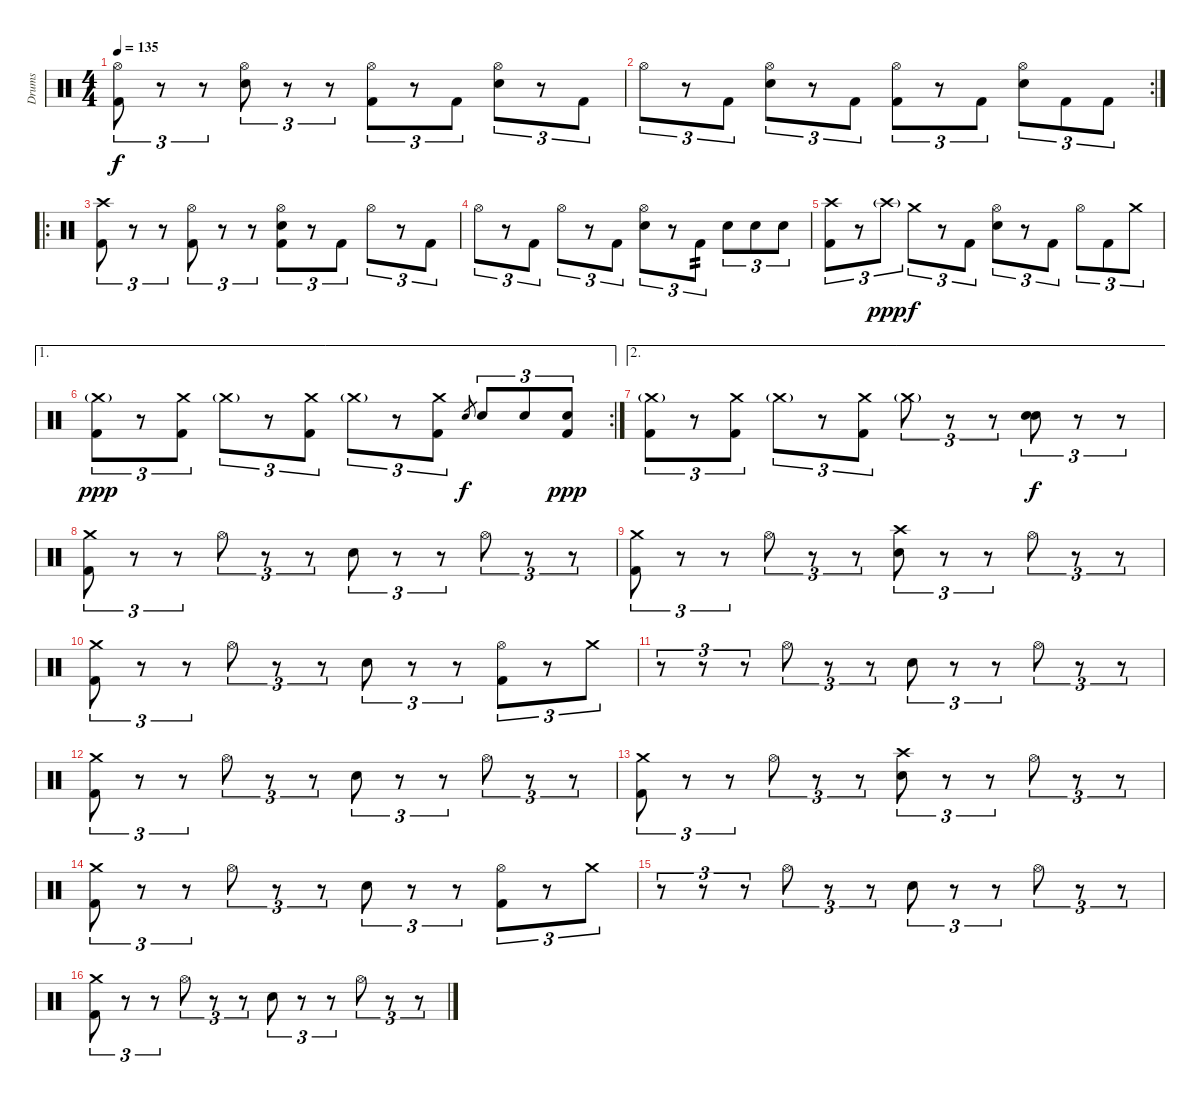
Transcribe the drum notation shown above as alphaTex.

\track ("Drums" "Drums") {instrument percussion}
\staff {score}
\articulation defaults
\ts (4 4)
\tempo 135
\clef neutral
\ks c
("Hi-Hat (open)" "Kick (hit) 2").8{tu (3 2) dy f} r.8{tu (3 2)} r.8{tu (3 2)} ("Hi-Hat (open)" "Electric Snare (hit)").8{tu (3 2)} r.8{tu (3 2)} r.8{tu (3 2)} ("Hi-Hat (open)" "Kick (hit) 2").8{tu (3 2)} r.8{tu (3 2)} "Kick (hit) 2".8{tu (3 2)} ("Hi-Hat (open)" "Electric Snare (hit)").8{tu (3 2)} r.8{tu (3 2)} "Kick (hit) 2".8{tu (3 2)} |
\rc 2 "Hi-Hat (open)".8{tu (3 2)}
r.8{tu (3 2)} "Kick (hit) 2".8{tu (3 2)} ("Hi-Hat (open)" "Electric Snare (hit)").8{tu (3 2)} r.8{tu (3 2)} "Kick (hit) 2".8{tu (3 2)} ("Hi-Hat (open)" "Kick (hit) 2").8{tu (3 2)} r.8{tu (3 2)} "Kick (hit) 2".8{tu (3 2)} ("Hi-Hat (open)" "Electric Snare (hit)").8{tu (3 2)} "Kick (hit) 2".8{tu (3 2)} "Kick (hit) 2".8{tu (3 2)} |
\ro
("Crash high (hit)" "Kick (hit) 2").8{tu (3 2)} r.8{tu (3 2)} r.8{tu (3 2)} ("Hi-Hat (open)" "Kick (hit) 2").8{tu (3 2)} r.8{tu (3 2)} r.8{tu (3 2)} ("Hi-Hat (open)" "Electric Snare (hit)" "Kick (hit) 2").8{tu (3 2)} r.8{tu (3 2)} "Kick (hit) 2".8{tu (3 2)} "Hi-Hat (open)".8{tu (3 2)} r.8{tu (3 2)} "Kick (hit) 2".8{tu (3 2)} |
"Hi-Hat (open)".8{tu (3 2)} r.8{tu (3 2)} "Kick (hit) 2".8{tu (3 2)} "Hi-Hat (open)".8{tu (3 2)} r.8{tu (3 2)} "Kick (hit) 2".8{tu (3 2)} ("Hi-Hat (open)" "Electric Snare (hit)").8{tu (3 2)} r.8{tu (3 2)} "Kick (hit) 2".8{tu (3 2) tp 2} "Electric Snare (hit)".8{tu (3 2)} "Electric Snare (hit)".8{tu (3 2)} "Electric Snare (hit)".8{tu (3 2)} |
("Crash high (hit)" "Kick (hit) 2").8{tu (3 2)} r.8{tu (3 2)} "Crash high (hit)"{g}.8{tu (3 2) dy ppp} "Crash medium (hit)".8{tu (3 2) dy f} r.8{tu (3 2)} "Kick (hit) 2".8{tu (3 2)} ("Hi-Hat (open)" "Electric Snare (hit)").8{tu (3 2)} r.8{tu (3 2)} "Kick (hit) 2".8{tu (3 2)} "Hi-Hat (open)".8{tu (3 2)} "Kick (hit) 2".8{tu (3 2)} "Crash medium (hit)".8{tu (3 2)} |
\ae 1
\rc 2
("Crash medium (hit)"{g} "Kick (hit) 2").8{tu (3 2) dy ppp} r.8{tu (3 2)} ("Crash medium (hit)" "Kick (hit) 2").8{tu (3 2)} "Crash medium (hit)"{g}.8{tu (3 2)} r.8{tu (3 2)} ("Crash medium (hit)" "Kick (hit) 2").8{tu (3 2)} "Crash medium (hit)"{g}.8{tu (3 2)} r.8{tu (3 2)} ("Crash medium (hit)" "Kick (hit) 2").8{tu (3 2)} "Electric Snare (hit)".8{gr dy f} "Electric Snare (hit)".8{tu (3 2)} "Electric Snare (hit)".8{tu (3 2)} ("Electric Snare (hit)" "Kick (hit) 2").8{tu (3 2) dy ppp} |
\ae 2
("Crash medium (hit)"{g} "Kick (hit) 2").8{tu (3 2)} r.8{tu (3 2)} ("Crash medium (hit)" "Kick (hit) 2").8{tu (3 2)} "Crash medium (hit)"{g}.8{tu (3 2)} r.8{tu (3 2)} ("Crash medium (hit)" "Kick (hit) 2").8{tu (3 2)} "Crash medium (hit)"{g}.8{tu (3 2)} r.8{tu (3 2)} r.8{tu (3 2)} ("Electric Snare (hit)" "Electric Snare (hit)").8{tu (3 2) bu 480 dy f} r.8{tu (3 2)} r.8{tu (3 2)} |
("Crash medium (hit)" "Kick (hit) 2").8{tu (3 2)} r.8{tu (3 2)} r.8{tu (3 2)} "Hi-Hat (open)".8{tu (3 2)} r.8{tu (3 2)} r.8{tu (3 2)} "Electric Snare (hit)".8{tu (3 2)} r.8{tu (3 2)} r.8{tu (3 2)} "Hi-Hat (open)".8{tu (3 2)} r.8{tu (3 2)} r.8{tu (3 2)} |
("Crash medium (hit)" "Kick (hit) 2").8{tu (3 2)} r.8{tu (3 2)} r.8{tu (3 2)} "Hi-Hat (open)".8{tu (3 2)} r.8{tu (3 2)} r.8{tu (3 2)} ("Crash high (hit)" "Electric Snare (hit)").8{tu (3 2)} r.8{tu (3 2)} r.8{tu (3 2)} "Hi-Hat (open)".8{tu (3 2)} r.8{tu (3 2)} r.8{tu (3 2)} |
("Crash medium (hit)" "Kick (hit) 2").8{tu (3 2)} r.8{tu (3 2)} r.8{tu (3 2)} "Hi-Hat (open)".8{tu (3 2)} r.8{tu (3 2)} r.8{tu (3 2)} "Electric Snare (hit)".8{tu (3 2)} r.8{tu (3 2)} r.8{tu (3 2)} ("Hi-Hat (open)" "Kick (hit) 2").8{tu (3 2)} r.8{tu (3 2)} "Crash medium (hit)".8{tu (3 2)} |
r.8{tu (3 2)} r.8{tu (3 2)} r.8{tu (3 2)} "Hi-Hat (open)".8{tu (3 2)} r.8{tu (3 2)} r.8{tu (3 2)} "Electric Snare (hit)".8{tu (3 2)} r.8{tu (3 2)} r.8{tu (3 2)} "Hi-Hat (open)".8{tu (3 2)} r.8{tu (3 2)} r.8{tu (3 2)} |
("Crash medium (hit)" "Kick (hit) 2").8{tu (3 2)} r.8{tu (3 2)} r.8{tu (3 2)} "Hi-Hat (open)".8{tu (3 2)} r.8{tu (3 2)} r.8{tu (3 2)} "Electric Snare (hit)".8{tu (3 2)} r.8{tu (3 2)} r.8{tu (3 2)} "Hi-Hat (open)".8{tu (3 2)} r.8{tu (3 2)} r.8{tu (3 2)} |
("Crash medium (hit)" "Kick (hit) 2").8{tu (3 2)} r.8{tu (3 2)} r.8{tu (3 2)} "Hi-Hat (open)".8{tu (3 2)} r.8{tu (3 2)} r.8{tu (3 2)} ("Crash high (hit)" "Electric Snare (hit)").8{tu (3 2)} r.8{tu (3 2)} r.8{tu (3 2)} "Hi-Hat (open)".8{tu (3 2)} r.8{tu (3 2)} r.8{tu (3 2)} |
("Crash medium (hit)" "Kick (hit) 2").8{tu (3 2)} r.8{tu (3 2)} r.8{tu (3 2)} "Hi-Hat (open)".8{tu (3 2)} r.8{tu (3 2)} r.8{tu (3 2)} "Electric Snare (hit)".8{tu (3 2)} r.8{tu (3 2)} r.8{tu (3 2)} ("Hi-Hat (open)" "Kick (hit) 2").8{tu (3 2)} r.8{tu (3 2)} "Crash medium (hit)".8{tu (3 2)} |
r.8{tu (3 2)} r.8{tu (3 2)} r.8{tu (3 2)} "Hi-Hat (open)".8{tu (3 2)} r.8{tu (3 2)} r.8{tu (3 2)} "Electric Snare (hit)".8{tu (3 2)} r.8{tu (3 2)} r.8{tu (3 2)} "Hi-Hat (open)".8{tu (3 2)} r.8{tu (3 2)} r.8{tu (3 2)} |
("Crash medium (hit)" "Kick (hit) 2").8{tu (3 2)} r.8{tu (3 2)} r.8{tu (3 2)} "Hi-Hat (open)".8{tu (3 2)} r.8{tu (3 2)} r.8{tu (3 2)} "Electric Snare (hit)".8{tu (3 2)} r.8{tu (3 2)} r.8{tu (3 2)} "Hi-Hat (open)".8{tu (3 2)} r.8{tu (3 2)} r.8{tu (3 2)}
